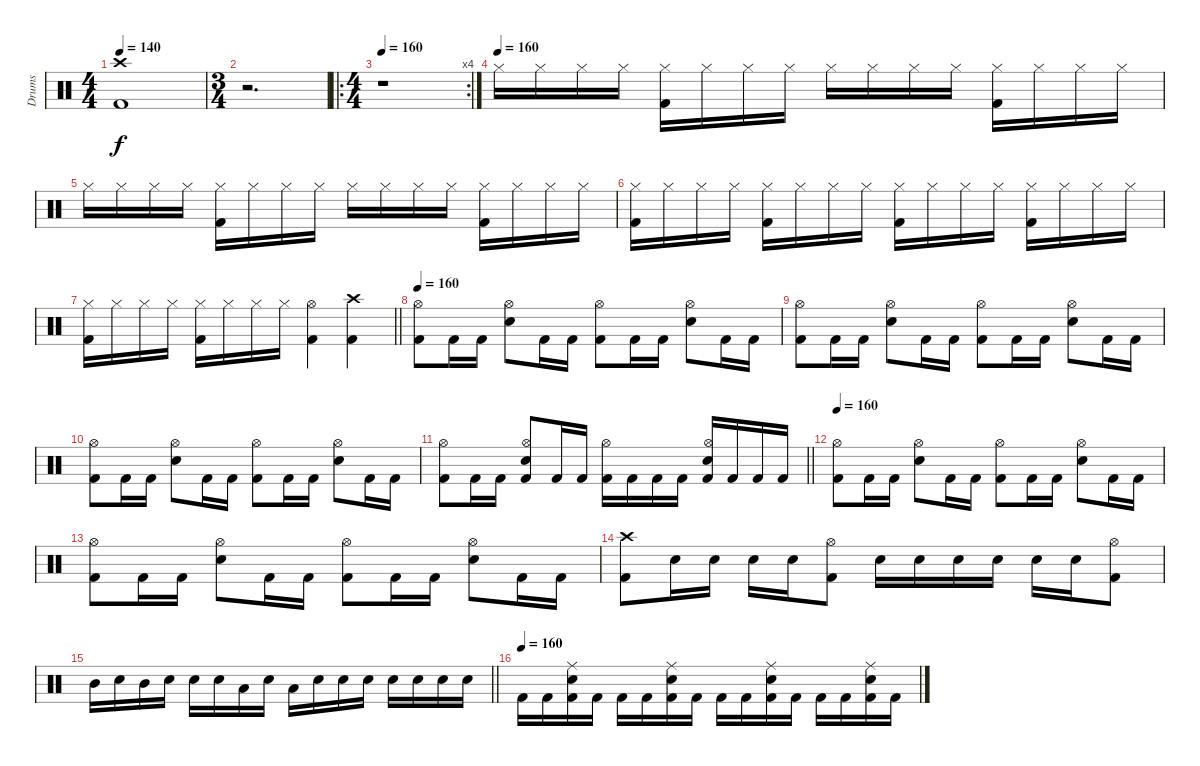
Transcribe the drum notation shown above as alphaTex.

\track ("Drums" "Drums") {instrument percussion}
\staff {score}
\articulation defaults
\ts (4 4)
\tempo 140
\clef neutral
\ks c
("Crash high (hit)" "Kick (hit) 2").1{dy f} |
\ts (3 4)
r.2{d} |
\ro
\rc 4
\ts (4 4)
\tempo 160
r.1 |
\tempo (160)
"Hi-Hat (closed)".16 "Hi-Hat (closed)".16 "Hi-Hat (closed)".16 "Hi-Hat (closed)".16 ("Hi-Hat (closed)" "Kick (hit) 2").16 "Hi-Hat (closed)".16 "Hi-Hat (closed)".16 "Hi-Hat (closed)".16 "Hi-Hat (closed)".16 "Hi-Hat (closed)".16 "Hi-Hat (closed)".16 "Hi-Hat (closed)".16 ("Hi-Hat (closed)" "Kick (hit) 2").16 "Hi-Hat (closed)".16 "Hi-Hat (closed)".16 "Hi-Hat (closed)".16 |
"Hi-Hat (closed)".16 "Hi-Hat (closed)".16 "Hi-Hat (closed)".16 "Hi-Hat (closed)".16 ("Hi-Hat (closed)" "Kick (hit) 2").16 "Hi-Hat (closed)".16 "Hi-Hat (closed)".16 "Hi-Hat (closed)".16 "Hi-Hat (closed)".16 "Hi-Hat (closed)".16 "Hi-Hat (closed)".16 "Hi-Hat (closed)".16 ("Hi-Hat (closed)" "Kick (hit) 2").16 "Hi-Hat (closed)".16 "Hi-Hat (closed)".16 "Hi-Hat (closed)".16 |
("Hi-Hat (closed)" "Kick (hit) 2").16 "Hi-Hat (closed)".16 "Hi-Hat (closed)".16 "Hi-Hat (closed)".16 ("Hi-Hat (closed)" "Kick (hit) 2").16 "Hi-Hat (closed)".16 "Hi-Hat (closed)".16 "Hi-Hat (closed)".16 ("Hi-Hat (closed)" "Kick (hit) 2").16 "Hi-Hat (closed)".16 "Hi-Hat (closed)".16 "Hi-Hat (closed)".16 ("Hi-Hat (closed)" "Kick (hit) 2").16 "Hi-Hat (closed)".16 "Hi-Hat (closed)".16 "Hi-Hat (closed)".16 |
\barLineRight lightlight
("Hi-Hat (closed)" "Kick (hit) 2").16 "Hi-Hat (closed)".16 "Hi-Hat (closed)".16 "Hi-Hat (closed)".16 ("Hi-Hat (closed)" "Kick (hit) 2").16 "Hi-Hat (closed)".16 "Hi-Hat (closed)".16 "Hi-Hat (closed)".16 ("Hi-Hat (open)" "Kick (hit) 2").4 ("Crash high (hit)" "Kick (hit) 2").4 |
\tempo 160
("Hi-Hat (open)" "Kick (hit) 2").8 "Kick (hit) 2".16 "Kick (hit) 2".16 ("Hi-Hat (open)" "Snare (hit) 2").8 "Kick (hit) 2".16 "Kick (hit) 2".16 ("Hi-Hat (open)" "Kick (hit) 2").8 "Kick (hit) 2".16 "Kick (hit) 2".16 ("Hi-Hat (open)" "Snare (hit) 2").8 "Kick (hit) 2".16 "Kick (hit) 2".16 |
("Hi-Hat (open)" "Kick (hit) 2").8 "Kick (hit) 2".16 "Kick (hit) 2".16 ("Hi-Hat (open)" "Snare (hit) 2").8 "Kick (hit) 2".16 "Kick (hit) 2".16 ("Hi-Hat (open)" "Kick (hit) 2").8 "Kick (hit) 2".16 "Kick (hit) 2".16 ("Hi-Hat (open)" "Snare (hit) 2").8 "Kick (hit) 2".16 "Kick (hit) 2".16 |
("Hi-Hat (open)" "Kick (hit) 2").8 "Kick (hit) 2".16 "Kick (hit) 2".16 ("Hi-Hat (open)" "Snare (hit) 2").8 "Kick (hit) 2".16 "Kick (hit) 2".16 ("Hi-Hat (open)" "Kick (hit) 2").8 "Kick (hit) 2".16 "Kick (hit) 2".16 ("Hi-Hat (open)" "Snare (hit) 2").8 "Kick (hit) 2".16 "Kick (hit) 2".16 |
\barLineRight lightlight
("Hi-Hat (open)" "Kick (hit) 2").8 "Kick (hit) 2".16 "Kick (hit) 2".16 ("Hi-Hat (open)" "Snare (hit) 2" "Kick (hit) 2").8 "Kick (hit) 2".16 "Kick (hit) 2".16 ("Hi-Hat (open)" "Kick (hit) 2").16 "Kick (hit) 2".16 "Kick (hit) 2".16 "Kick (hit) 2".16 ("Hi-Hat (open)" "Snare (hit) 2" "Kick (hit) 2").16 "Kick (hit) 2".16 "Kick (hit) 2".16 "Kick (hit) 2".16 |
\tempo 160
("Hi-Hat (open)" "Kick (hit) 2").8 "Kick (hit) 2".16 "Kick (hit) 2".16 ("Hi-Hat (open)" "Snare (hit) 2").8 "Kick (hit) 2".16 "Kick (hit) 2".16 ("Hi-Hat (open)" "Kick (hit) 2").8 "Kick (hit) 2".16 "Kick (hit) 2".16 ("Hi-Hat (open)" "Snare (hit) 2").8 "Kick (hit) 2".16 "Kick (hit) 2".16 |
("Hi-Hat (open)" "Kick (hit) 2").8 "Kick (hit) 2".16 "Kick (hit) 2".16 ("Hi-Hat (open)" "Snare (hit) 2").8 "Kick (hit) 2".16 "Kick (hit) 2".16 ("Hi-Hat (open)" "Kick (hit) 2").8 "Kick (hit) 2".16 "Kick (hit) 2".16 ("Hi-Hat (open)" "Snare (hit) 2").8 "Kick (hit) 2".16 "Kick (hit) 2".16 |
("Crash high (hit)" "Kick (hit) 2").8 "Snare (hit) 2".16 "Snare (hit) 2".16 "Snare (hit) 2".16 "Snare (hit) 2".16 ("Hi-Hat (open)" "Kick (hit) 2").8 "Snare (hit) 2".16 "Snare (hit) 2".16 "Snare (hit) 2".16 "Snare (hit) 2".16 "Snare (hit) 2".16 "Snare (hit) 2".16 ("Hi-Hat (open)" "Kick (hit) 2").8 |
\barLineRight lightlight "Mid Tom (hit)".16 "Snare (hit) 2".16 "Mid Tom (hit)".16 "Snare (hit) 2".16 "Snare (hit) 2".16 "Snare (hit) 2".16 "Low Tom (hit)".16 "Snare (hit) 2".16 "Low Tom (hit)".16 "Snare (hit) 2".16 "Snare (hit) 2".16 "Snare (hit) 2".16 "Snare (hit) 2".16 "Snare (hit) 2".16 "Snare (hit) 2".16 "Snare (hit) 2".16
|
\tempo (160)
"Kick (hit) 2".16 "Kick (hit) 2".16 ("Ride (middle)" "Snare (hit) 2" "Kick (hit) 2").16 "Kick (hit) 2".16 "Kick (hit) 2".16 "Kick (hit) 2".16 ("Ride (middle)" "Snare (hit) 2" "Kick (hit) 2").16 "Kick (hit) 2".16 "Kick (hit) 2".16 "Kick (hit) 2".16 ("Ride (middle)" "Snare (hit) 2" "Kick (hit) 2").16 "Kick (hit) 2".16 "Kick (hit) 2".16 "Kick (hit) 2".16 ("Ride (middle)" "Snare (hit) 2" "Kick (hit) 2").16 "Kick (hit) 2".16
